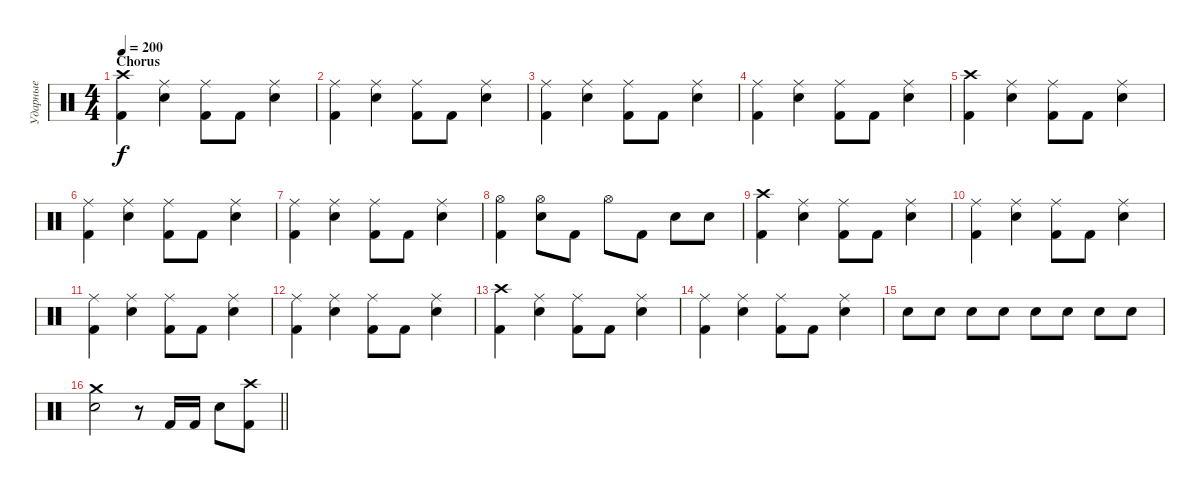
\track ("Ударные" "Ударные") {instrument percussion}
\staff {score}
\articulation defaults
\ts (4 4)
\section ("" "Chorus")
\tempo 200
\clef neutral
\ks c
("Crash high (hit)" "Kick (hit) 2").4{dy f} ("Ride (middle)" "Electric Snare (hit)").4 ("Ride (middle)" "Kick (hit) 2").8 "Kick (hit) 2".8 ("Ride (middle)" "Electric Snare (hit)").4 |
("Ride (middle)" "Kick (hit) 2").4 ("Ride (middle)" "Electric Snare (hit)").4 ("Ride (middle)" "Kick (hit) 2").8 "Kick (hit) 2".8 ("Ride (middle)" "Electric Snare (hit)").4 |
("Ride (middle)" "Kick (hit) 2").4 ("Ride (middle)" "Electric Snare (hit)").4 ("Ride (middle)" "Kick (hit) 2").8 "Kick (hit) 2".8 ("Ride (middle)" "Electric Snare (hit)").4 |
("Ride (middle)" "Kick (hit) 2").4 ("Ride (middle)" "Electric Snare (hit)").4 ("Ride (middle)" "Kick (hit) 2").8 "Kick (hit) 2".8 ("Ride (middle)" "Electric Snare (hit)").4 |
("Crash high (hit)" "Kick (hit) 2").4 ("Ride (middle)" "Electric Snare (hit)").4 ("Ride (middle)" "Kick (hit) 2").8 "Kick (hit) 2".8 ("Ride (middle)" "Electric Snare (hit)").4 |
("Ride (middle)" "Kick (hit) 2").4 ("Ride (middle)" "Electric Snare (hit)").4 ("Ride (middle)" "Kick (hit) 2").8 "Kick (hit) 2".8 ("Ride (middle)" "Electric Snare (hit)").4 |
("Ride (middle)" "Kick (hit) 2").4 ("Ride (middle)" "Electric Snare (hit)").4 ("Ride (middle)" "Kick (hit) 2").8 "Kick (hit) 2".8 ("Ride (middle)" "Electric Snare (hit)").4 |
("Hi-Hat (open)" "Kick (hit) 2").4 ("Hi-Hat (open)" "Electric Snare (hit)").8 "Kick (hit) 2".8 "Hi-Hat (open)".8 "Kick (hit) 2".8 "Electric Snare (hit)".8 "Electric Snare (hit)".8 |
("Crash high (hit)" "Kick (hit) 2").4 ("Ride (middle)" "Electric Snare (hit)").4 ("Ride (middle)" "Kick (hit) 2").8 "Kick (hit) 2".8 ("Ride (middle)" "Electric Snare (hit)").4 |
("Ride (middle)" "Kick (hit) 2").4 ("Ride (middle)" "Electric Snare (hit)").4 ("Ride (middle)" "Kick (hit) 2").8 "Kick (hit) 2".8 ("Ride (middle)" "Electric Snare (hit)").4 |
("Ride (middle)" "Kick (hit) 2").4 ("Ride (middle)" "Electric Snare (hit)").4 ("Ride (middle)" "Kick (hit) 2").8 "Kick (hit) 2".8 ("Ride (middle)" "Electric Snare (hit)").4 |
("Ride (middle)" "Kick (hit) 2").4 ("Ride (middle)" "Electric Snare (hit)").4 ("Ride (middle)" "Kick (hit) 2").8 "Kick (hit) 2".8 ("Ride (middle)" "Electric Snare (hit)").4 |
("Crash high (hit)" "Kick (hit) 2").4 ("Ride (middle)" "Electric Snare (hit)").4 ("Ride (middle)" "Kick (hit) 2").8 "Kick (hit) 2".8 ("Ride (middle)" "Electric Snare (hit)").4 |
("Ride (middle)" "Kick (hit) 2").4 ("Ride (middle)" "Electric Snare (hit)").4 ("Ride (middle)" "Kick (hit) 2").8 "Kick (hit) 2".8 ("Ride (middle)" "Electric Snare (hit)").4 |
"Electric Snare (hit)".8 "Electric Snare (hit)".8 "Electric Snare (hit)".8 "Electric Snare (hit)".8 "Electric Snare (hit)".8 "Electric Snare (hit)".8 "Electric Snare (hit)".8 "Electric Snare (hit)".8 |
\barLineRight lightlight
("Crash medium (hit)" "Electric Snare (hit)").2 r.8 "Kick (hit) 2".16 "Kick (hit) 2".16 "Electric Snare (hit)".8 ("Crash high (hit)" "Kick (hit) 2").8
